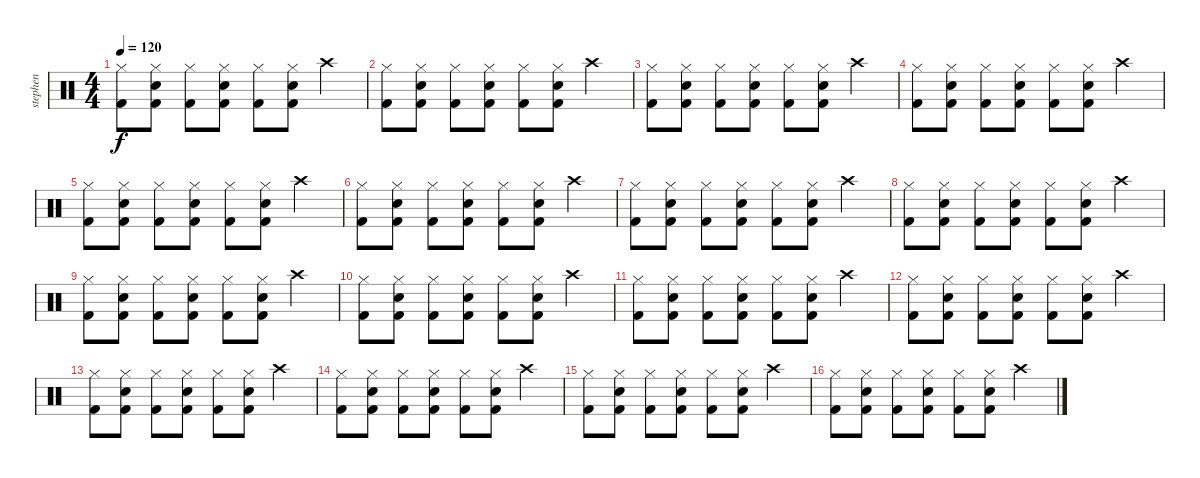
\track ("stephen" "stephen") {instrument percussion}
\staff {score}
\articulation defaults
\ts (4 4)
\tempo 120
\clef neutral
\ks c
("Hi-Hat (closed)" "Kick (hit) 2").8{dy f} ("Kick (hit) 2" "Hi-Hat (closed)" "Snare (hit) 2").8 ("Kick (hit) 2" "Hi-Hat (closed)").8 ("Kick (hit) 2" "Hi-Hat (closed)" "Snare (hit) 2").8 ("Kick (hit) 2" "Hi-Hat (closed)").8 ("Kick (hit) 2" "Hi-Hat (closed)" "Snare (hit) 2").8 "Crash high (hit)".4 |
("Hi-Hat (closed)" "Kick (hit) 2").8 ("Kick (hit) 2" "Hi-Hat (closed)" "Snare (hit) 2").8 ("Kick (hit) 2" "Hi-Hat (closed)").8 ("Kick (hit) 2" "Hi-Hat (closed)" "Snare (hit) 2").8 ("Kick (hit) 2" "Hi-Hat (closed)").8 ("Kick (hit) 2" "Hi-Hat (closed)" "Snare (hit) 2").8 "Crash high (hit)".4 |
("Hi-Hat (closed)" "Kick (hit) 2").8 ("Kick (hit) 2" "Hi-Hat (closed)" "Snare (hit) 2").8 ("Kick (hit) 2" "Hi-Hat (closed)").8 ("Kick (hit) 2" "Hi-Hat (closed)" "Snare (hit) 2").8 ("Kick (hit) 2" "Hi-Hat (closed)").8 ("Kick (hit) 2" "Hi-Hat (closed)" "Snare (hit) 2").8 "Crash high (hit)".4 |
("Hi-Hat (closed)" "Kick (hit) 2").8 ("Kick (hit) 2" "Hi-Hat (closed)" "Snare (hit) 2").8 ("Kick (hit) 2" "Hi-Hat (closed)").8 ("Kick (hit) 2" "Hi-Hat (closed)" "Snare (hit) 2").8 ("Kick (hit) 2" "Hi-Hat (closed)").8 ("Kick (hit) 2" "Hi-Hat (closed)" "Snare (hit) 2").8 "Crash high (hit)".4 |
("Hi-Hat (closed)" "Kick (hit) 2").8 ("Kick (hit) 2" "Hi-Hat (closed)" "Snare (hit) 2").8 ("Kick (hit) 2" "Hi-Hat (closed)").8 ("Kick (hit) 2" "Hi-Hat (closed)" "Snare (hit) 2").8 ("Kick (hit) 2" "Hi-Hat (closed)").8 ("Kick (hit) 2" "Hi-Hat (closed)" "Snare (hit) 2").8 "Crash high (hit)".4 |
("Hi-Hat (closed)" "Kick (hit) 2").8 ("Kick (hit) 2" "Hi-Hat (closed)" "Snare (hit) 2").8 ("Kick (hit) 2" "Hi-Hat (closed)").8 ("Kick (hit) 2" "Hi-Hat (closed)" "Snare (hit) 2").8 ("Kick (hit) 2" "Hi-Hat (closed)").8 ("Kick (hit) 2" "Hi-Hat (closed)" "Snare (hit) 2").8 "Crash high (hit)".4 |
("Hi-Hat (closed)" "Kick (hit) 2").8 ("Kick (hit) 2" "Hi-Hat (closed)" "Snare (hit) 2").8 ("Kick (hit) 2" "Hi-Hat (closed)").8 ("Kick (hit) 2" "Hi-Hat (closed)" "Snare (hit) 2").8 ("Kick (hit) 2" "Hi-Hat (closed)").8 ("Kick (hit) 2" "Hi-Hat (closed)" "Snare (hit) 2").8 "Crash high (hit)".4 |
("Hi-Hat (closed)" "Kick (hit) 2").8 ("Kick (hit) 2" "Hi-Hat (closed)" "Snare (hit) 2").8 ("Kick (hit) 2" "Hi-Hat (closed)").8 ("Kick (hit) 2" "Hi-Hat (closed)" "Snare (hit) 2").8 ("Kick (hit) 2" "Hi-Hat (closed)").8 ("Kick (hit) 2" "Hi-Hat (closed)" "Snare (hit) 2").8 "Crash high (hit)".4 |
("Hi-Hat (closed)" "Kick (hit) 2").8 ("Kick (hit) 2" "Hi-Hat (closed)" "Snare (hit) 2").8 ("Kick (hit) 2" "Hi-Hat (closed)").8 ("Kick (hit) 2" "Hi-Hat (closed)" "Snare (hit) 2").8 ("Kick (hit) 2" "Hi-Hat (closed)").8 ("Kick (hit) 2" "Hi-Hat (closed)" "Snare (hit) 2").8 "Crash high (hit)".4 |
("Hi-Hat (closed)" "Kick (hit) 2").8 ("Kick (hit) 2" "Hi-Hat (closed)" "Snare (hit) 2").8 ("Kick (hit) 2" "Hi-Hat (closed)").8 ("Kick (hit) 2" "Hi-Hat (closed)" "Snare (hit) 2").8 ("Kick (hit) 2" "Hi-Hat (closed)").8 ("Kick (hit) 2" "Hi-Hat (closed)" "Snare (hit) 2").8 "Crash high (hit)".4 |
("Hi-Hat (closed)" "Kick (hit) 2").8 ("Kick (hit) 2" "Hi-Hat (closed)" "Snare (hit) 2").8 ("Kick (hit) 2" "Hi-Hat (closed)").8 ("Kick (hit) 2" "Hi-Hat (closed)" "Snare (hit) 2").8 ("Kick (hit) 2" "Hi-Hat (closed)").8 ("Kick (hit) 2" "Hi-Hat (closed)" "Snare (hit) 2").8 "Crash high (hit)".4 |
("Hi-Hat (closed)" "Kick (hit) 2").8 ("Kick (hit) 2" "Hi-Hat (closed)" "Snare (hit) 2").8 ("Kick (hit) 2" "Hi-Hat (closed)").8 ("Kick (hit) 2" "Hi-Hat (closed)" "Snare (hit) 2").8 ("Kick (hit) 2" "Hi-Hat (closed)").8 ("Kick (hit) 2" "Hi-Hat (closed)" "Snare (hit) 2").8 "Crash high (hit)".4 |
("Hi-Hat (closed)" "Kick (hit) 2").8 ("Kick (hit) 2" "Hi-Hat (closed)" "Snare (hit) 2").8 ("Kick (hit) 2" "Hi-Hat (closed)").8 ("Kick (hit) 2" "Hi-Hat (closed)" "Snare (hit) 2").8 ("Kick (hit) 2" "Hi-Hat (closed)").8 ("Kick (hit) 2" "Hi-Hat (closed)" "Snare (hit) 2").8 "Crash high (hit)".4 |
("Hi-Hat (closed)" "Kick (hit) 2").8 ("Kick (hit) 2" "Hi-Hat (closed)" "Snare (hit) 2").8 ("Kick (hit) 2" "Hi-Hat (closed)").8 ("Kick (hit) 2" "Hi-Hat (closed)" "Snare (hit) 2").8 ("Kick (hit) 2" "Hi-Hat (closed)").8 ("Kick (hit) 2" "Hi-Hat (closed)" "Snare (hit) 2").8 "Crash high (hit)".4 |
("Hi-Hat (closed)" "Kick (hit) 2").8 ("Kick (hit) 2" "Hi-Hat (closed)" "Snare (hit) 2").8 ("Kick (hit) 2" "Hi-Hat (closed)").8 ("Kick (hit) 2" "Hi-Hat (closed)" "Snare (hit) 2").8 ("Kick (hit) 2" "Hi-Hat (closed)").8 ("Kick (hit) 2" "Hi-Hat (closed)" "Snare (hit) 2").8 "Crash high (hit)".4 |
("Hi-Hat (closed)" "Kick (hit) 2").8 ("Kick (hit) 2" "Hi-Hat (closed)" "Snare (hit) 2").8 ("Kick (hit) 2" "Hi-Hat (closed)").8 ("Kick (hit) 2" "Hi-Hat (closed)" "Snare (hit) 2").8 ("Kick (hit) 2" "Hi-Hat (closed)").8 ("Kick (hit) 2" "Hi-Hat (closed)" "Snare (hit) 2").8 "Crash high (hit)".4
